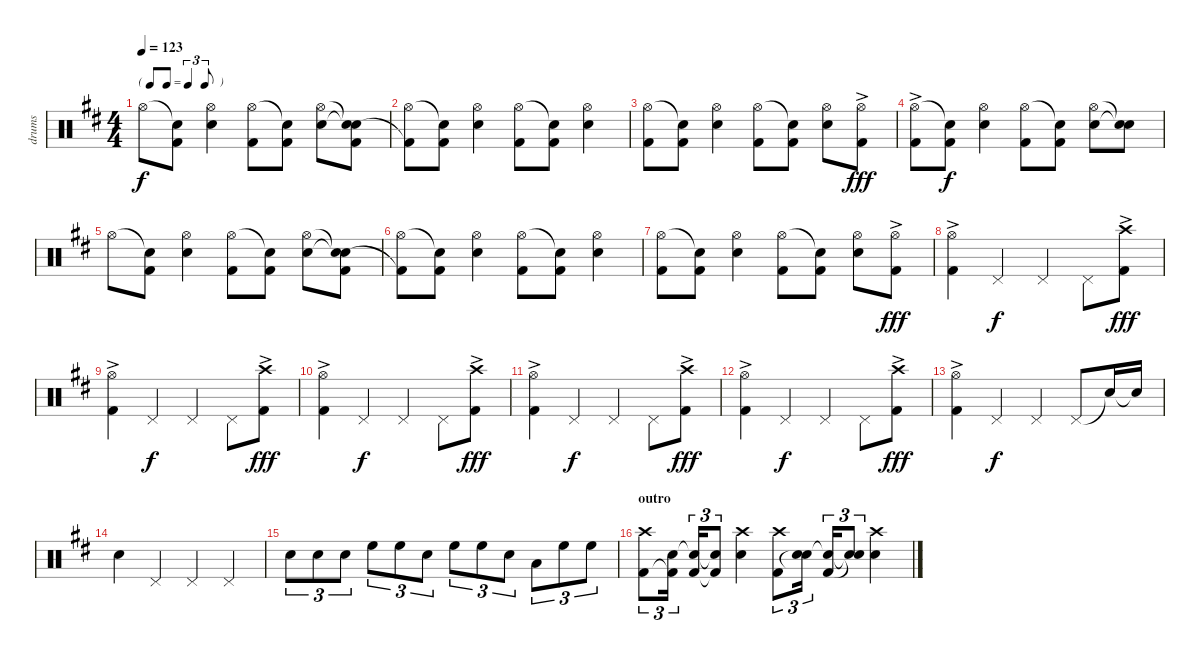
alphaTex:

\track ("drums" "drums") {instrument percussion}
\staff {score}
\articulation defaults
\ts (4 4)
\tf triplet8th
\tempo 123
\clef neutral
\ks d "Hi-Hat (open)".8{dy f}
("Snare (hit)"{t} "Kick (hit) 2").8 ("Hi-Hat (open)" "Snare (hit) 2").4 ("Hi-Hat (open)" "Kick (hit) 2").8 ("Snare (hit)"{t} "Kick (hit) 2").8 ("Hi-Hat (open)" "Snare (hit) 2").8 ("Snare (hit)"{t} "Snare (hit)"{t} "Kick (hit) 2").8 |
("Hi-Hat (open)" "Kick (hit) 2"{t}).8 ("Snare (hit)"{t} "Kick (hit) 2").8 ("Hi-Hat (open)" "Snare (hit) 2").4 ("Hi-Hat (open)" "Kick (hit) 2").8 ("Snare (hit)"{t} "Kick (hit) 2").8 ("Hi-Hat (open)" "Snare (hit) 2").4 |
("Hi-Hat (open)" "Kick (hit) 2").8 ("Snare (hit)"{t} "Kick (hit) 2").8 ("Hi-Hat (open)" "Snare (hit) 2").4 ("Hi-Hat (open)" "Kick (hit) 2").8 ("Snare (hit)"{t} "Kick (hit) 2").8 ("Hi-Hat (open)" "Snare (hit) 2").8 ("Hi-Hat (open)"{ac} "Kick (hit) 2").8{dy fff} |
("Hi-Hat (open)"{ac} "Kick (hit) 2").8 ("Snare (hit)"{t} "Kick (hit) 2").8{dy f} ("Hi-Hat (open)" "Snare (hit) 2").4 ("Hi-Hat (open)" "Kick (hit) 2").8 ("Snare (hit)"{t} "Kick (hit) 2").8 ("Hi-Hat (open)" "Snare (hit) 2").8 ("Snare (hit)"{t} "Snare (hit)"{t}).8 |
"Hi-Hat (open)".8 ("Snare (hit)"{t} "Kick (hit) 2").8 ("Hi-Hat (open)" "Snare (hit) 2").4 ("Hi-Hat (open)" "Kick (hit) 2").8 ("Snare (hit)"{t} "Kick (hit) 2").8 ("Hi-Hat (open)" "Snare (hit) 2").8 ("Snare (hit)"{t} "Snare (hit)"{t} "Kick (hit) 2").8 |
("Hi-Hat (open)" "Kick (hit) 2"{t}).8 ("Snare (hit)"{t} "Kick (hit) 2").8 ("Hi-Hat (open)" "Snare (hit) 2").4 ("Hi-Hat (open)" "Kick (hit) 2").8 ("Snare (hit)"{t} "Kick (hit) 2").8 ("Hi-Hat (open)" "Snare (hit) 2").4 |
("Hi-Hat (open)" "Kick (hit) 2").8 ("Snare (hit)"{t} "Kick (hit) 2").8 ("Hi-Hat (open)" "Snare (hit) 2").4 ("Hi-Hat (open)" "Kick (hit) 2").8 ("Snare (hit)"{t} "Kick (hit) 2").8 ("Hi-Hat (open)" "Snare (hit) 2").8 ("Hi-Hat (open)"{ac} "Kick (hit) 2").8{dy fff} |
("Hi-Hat (open)"{ac} "Kick (hit) 2").4 "Pedal Hi-Hat (hit)".4{dy f} "Pedal Hi-Hat (hit)".4 "Pedal Hi-Hat (hit)".8 ("Crash high (hit)"{ac} "Kick (hit) 2").8{dy fff} |
("Hi-Hat (open)"{ac} "Kick (hit) 2").4 "Pedal Hi-Hat (hit)".4{dy f} "Pedal Hi-Hat (hit)".4 "Pedal Hi-Hat (hit)".8 ("Crash high (hit)"{ac} "Kick (hit) 2").8{dy fff} |
("Hi-Hat (open)"{ac} "Kick (hit) 2").4 "Pedal Hi-Hat (hit)".4{dy f} "Pedal Hi-Hat (hit)".4 "Pedal Hi-Hat (hit)".8 ("Crash high (hit)"{ac} "Kick (hit) 2").8{dy fff} |
("Hi-Hat (open)"{ac} "Kick (hit) 2").4 "Pedal Hi-Hat (hit)".4{dy f} "Pedal Hi-Hat (hit)".4 "Pedal Hi-Hat (hit)".8 ("Crash high (hit)"{ac} "Kick (hit) 2").8{dy fff} |
("Hi-Hat (open)"{ac} "Kick (hit) 2").4 "Pedal Hi-Hat (hit)".4{dy f} "Pedal Hi-Hat (hit)".4 "Pedal Hi-Hat (hit)".8 ("Crash high (hit)"{ac} "Kick (hit) 2").8{dy fff} |
("Hi-Hat (open)"{ac} "Kick (hit) 2").4 "Pedal Hi-Hat (hit)".4{dy f} "Pedal Hi-Hat (hit)".4 "Pedal Hi-Hat (hit)".8 "Snare (hit)"{t}.16 "Snare (hit)"{t}.16 |
"Snare (hit) 2".4 "Pedal Hi-Hat (hit)".4 "Pedal Hi-Hat (hit)".4 "Pedal Hi-Hat (hit)".4 |
"Snare (hit) 2".8{tu (3 2)} "Snare (hit) 2".8{tu (3 2)} "Snare (hit) 2".8{tu (3 2)} "High Floor Tom (hit)".8{tu (3 2)} "High Floor Tom (hit)".8{tu (3 2)} "Snare (hit) 2".8{tu (3 2)} "High Floor Tom (hit)".8{tu (3 2)} "High Floor Tom (hit)".8{tu (3 2)} "Snare (hit) 2".8{tu (3 2)} "Low Tom (hit)".8{tu (3 2)} "High Floor Tom (hit)".8{tu (3 2)} "High Floor Tom (hit)".8{tu (3 2)} |
\section ("" "outro")
("Crash high (hit)" "Kick (hit) 2").8{tu (3 2)} ("Snare (hit) 2" "Kick (hit) 2"{t}).16{tu (3 2)} ("Snare (hit) 2"{t} "Kick (hit) 2").16{tu (3 2)} ("Snare (hit) 2"{t} "Kick (hit) 2"{t}).8{tu (3 2)} ("Crash high (hit)" "Snare (hit) 2").4 ("Crash high (hit)" "Kick (hit) 2").8{tu (3 2)} ("Snare (hit) 2" "Snare (hit)"{t}).16{tu (3 2)} ("Snare (hit) 2"{t} "Kick (hit) 2").16{tu (3 2)} ("Snare (hit) 2"{t} "Snare (hit)"{t}).8{tu (3 2)} ("Crash high (hit)" "Snare (hit) 2").4
